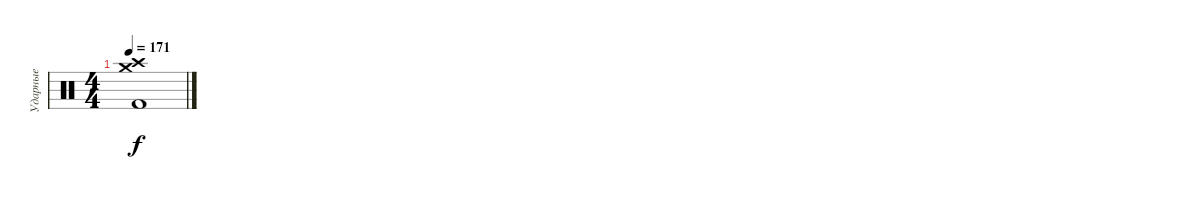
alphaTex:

\track ("Ударные" "Ударные") {instrument percussion}
\staff {score}
\articulation defaults
\ts (4 4)
\tempo 171
\clef neutral
\ks c
("Crash medium (hit)" "Crash high (hit)" "Kick (hit) 2").1{dy f}
